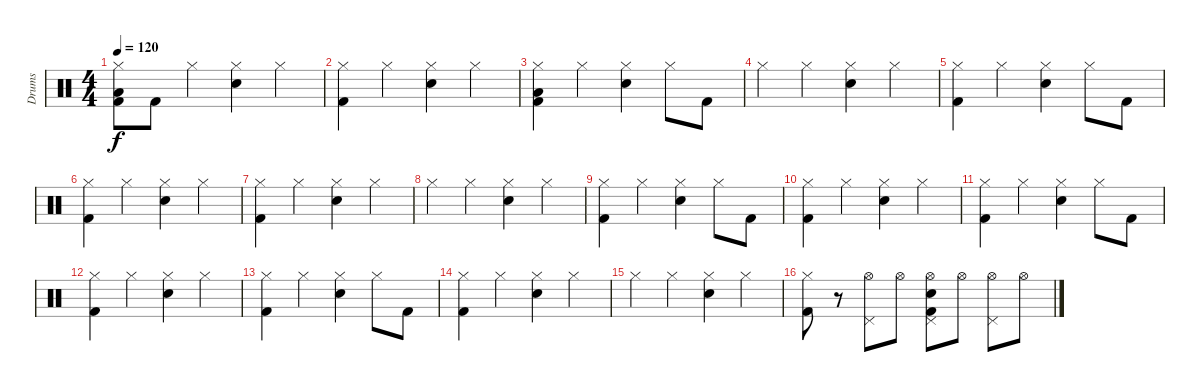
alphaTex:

\track ("Drums" "Drums") {instrument percussion}
\staff {score}
\articulation defaults
\ts (4 4)
\tempo 120
\clef neutral
\ks c
("Hi-Hat (closed)" "Low Floor Tom (hit)" "Kick (hit) 2").8{dy f} "Kick (hit) 2".8 "Hi-Hat (closed)".4 ("Hi-Hat (closed)" "Electric Snare (hit)").4 "Hi-Hat (closed)".4 |
("Hi-Hat (closed)" "Kick (hit) 2").4 "Hi-Hat (closed)".4 ("Hi-Hat (closed)" "Electric Snare (hit)").4 "Hi-Hat (closed)".4 |
("Hi-Hat (closed)" "Low Floor Tom (hit)" "Kick (hit) 2").4 "Hi-Hat (closed)".4 ("Hi-Hat (closed)" "Electric Snare (hit)").4 "Hi-Hat (closed)".8 "Kick (hit) 2".8 |
"Hi-Hat (closed)".4 "Hi-Hat (closed)".4 ("Hi-Hat (closed)" "Electric Snare (hit)").4 "Hi-Hat (closed)".4 |
("Hi-Hat (closed)" "Kick (hit) 2").4 "Hi-Hat (closed)".4 ("Hi-Hat (closed)" "Electric Snare (hit)").4 "Hi-Hat (closed)".8 "Kick (hit) 2".8 |
("Hi-Hat (closed)" "Kick (hit) 2").4 "Hi-Hat (closed)".4 ("Hi-Hat (closed)" "Electric Snare (hit)").4 "Hi-Hat (closed)".4 |
("Hi-Hat (closed)" "Kick (hit) 2").4 "Hi-Hat (closed)".4 ("Hi-Hat (closed)" "Electric Snare (hit)").4 "Hi-Hat (closed)".4 |
"Hi-Hat (closed)".4 "Hi-Hat (closed)".4 ("Hi-Hat (closed)" "Electric Snare (hit)").4 "Hi-Hat (closed)".4 |
("Hi-Hat (closed)" "Kick (hit) 2").4 "Hi-Hat (closed)".4 ("Hi-Hat (closed)" "Electric Snare (hit)").4 "Hi-Hat (closed)".8 "Kick (hit) 2".8 |
("Hi-Hat (closed)" "Kick (hit) 2").4 "Hi-Hat (closed)".4 ("Hi-Hat (closed)" "Electric Snare (hit)").4 "Hi-Hat (closed)".4 |
("Hi-Hat (closed)" "Kick (hit) 2").4 "Hi-Hat (closed)".4 ("Hi-Hat (closed)" "Electric Snare (hit)").4 "Hi-Hat (closed)".8 "Kick (hit) 2".8 |
("Hi-Hat (closed)" "Kick (hit) 2").4 "Hi-Hat (closed)".4 ("Hi-Hat (closed)" "Electric Snare (hit)").4 "Hi-Hat (closed)".4 |
("Hi-Hat (closed)" "Kick (hit) 2").4 "Hi-Hat (closed)".4 ("Hi-Hat (closed)" "Electric Snare (hit)").4 "Hi-Hat (closed)".8 "Kick (hit) 2".8 |
("Hi-Hat (closed)" "Kick (hit) 2").4 "Hi-Hat (closed)".4 ("Hi-Hat (closed)" "Electric Snare (hit)").4 "Hi-Hat (closed)".4 |
"Hi-Hat (closed)".4 "Hi-Hat (closed)".4 ("Hi-Hat (closed)" "Electric Snare (hit)").4 "Hi-Hat (closed)".4 |
("Hi-Hat (closed)" "Kick (hit) 2").8 r.8 ("Hi-Hat (open)" "Pedal Hi-Hat (hit)").8 "Hi-Hat (open)".8 ("Hi-Hat (open)" "Pedal Hi-Hat (hit)" "Electric Snare (hit)" "Kick (hit) 2").8 "Hi-Hat (open)".8 ("Hi-Hat (open)" "Pedal Hi-Hat (hit)").8 "Hi-Hat (open)".8
